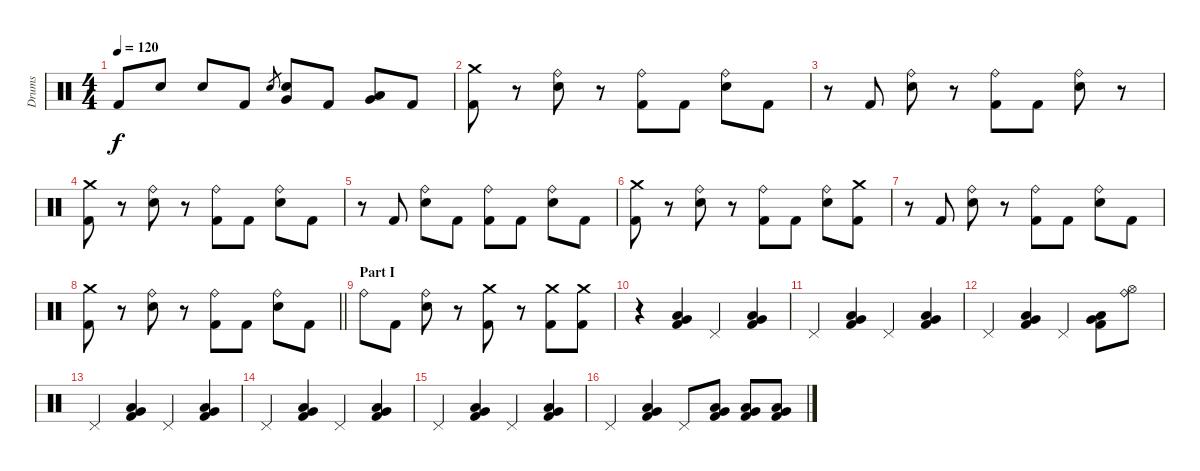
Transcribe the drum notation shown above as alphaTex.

\track ("Drums" "Drums") {instrument percussion}
\staff {score}
\articulation defaults
\ts (4 4)
\tempo 120
\clef neutral
\ks c "Kick (hit) 2".8{dy f} "Electric Snare (hit)".8 "Electric Snare (hit)".8 "Kick (hit) 2".8 "Electric Snare (hit)".8{gr}
("Electric Snare (hit)" "Very Low Tom (hit)").8 "Kick (hit) 2".8 ("Very Low Tom (hit)" "Low Floor Tom (hit)").8 "Kick (hit) 2".8 |
("Crash medium (hit)" "Kick (hit) 2").8 r.8 ("Ride (bell)" "Electric Snare (hit)").8 r.8 ("Ride (bell)" "Kick (hit) 2").8 "Kick (hit) 2".8 ("Ride (bell)" "Electric Snare (hit)").8 "Kick (hit) 2".8 |
r.8 "Kick (hit) 2".8 ("Ride (bell)" "Electric Snare (hit)").8 r.8 ("Ride (bell)" "Kick (hit) 2").8 "Kick (hit) 2".8 ("Ride (bell)" "Electric Snare (hit)").8 r.8 |
("Crash medium (hit)" "Kick (hit) 2").8 r.8 ("Ride (bell)" "Electric Snare (hit)").8 r.8 ("Ride (bell)" "Kick (hit) 2").8 "Kick (hit) 2".8 ("Ride (bell)" "Electric Snare (hit)").8 "Kick (hit) 2".8 |
r.8 "Kick (hit) 2".8 ("Ride (bell)" "Electric Snare (hit)").8 "Kick (hit) 2".8 ("Ride (bell)" "Kick (hit) 2").8 "Kick (hit) 2".8 ("Ride (bell)" "Electric Snare (hit)").8 "Kick (hit) 2".8 |
("Crash medium (hit)" "Kick (hit) 2").8 r.8 ("Ride (bell)" "Electric Snare (hit)").8 r.8 ("Ride (bell)" "Kick (hit) 2").8 "Kick (hit) 2".8 ("Ride (bell)" "Electric Snare (hit)").8 ("Crash medium (hit)" "Kick (hit) 2").8 |
r.8 "Kick (hit) 2".8 ("Ride (bell)" "Electric Snare (hit)").8 r.8 ("Ride (bell)" "Kick (hit) 2").8 "Kick (hit) 2".8 ("Ride (bell)" "Electric Snare (hit)").8 "Kick (hit) 2".8 |
\barLineRight lightlight
("Crash medium (hit)" "Kick (hit) 2").8 r.8 ("Ride (bell)" "Electric Snare (hit)").8 r.8 ("Ride (bell)" "Kick (hit) 2").8 "Kick (hit) 2".8 ("Ride (bell)" "Electric Snare (hit)").8 "Kick (hit) 2".8 |
\section ("" "Part I ")
"Ride (bell)".8 "Kick (hit) 2".8 ("Ride (bell)" "Electric Snare (hit)").8 r.8 ("Crash medium (hit)" "Kick (hit) 2").8 r.8 ("Crash medium (hit)" "Kick (hit) 2").8 ("Crash medium (hit)" "Kick (hit) 2").8 |
r.4 ("Low Floor Tom (hit)" "Very Low Tom (hit)" "Kick (hit) 2").4 "Pedal Hi-Hat (hit)".4 ("Low Floor Tom (hit)" "Very Low Tom (hit)" "Kick (hit) 2").4 |
"Pedal Hi-Hat (hit)".4 ("Low Floor Tom (hit)" "Very Low Tom (hit)" "Kick (hit) 2").4 "Pedal Hi-Hat (hit)".4 ("Low Floor Tom (hit)" "Very Low Tom (hit)" "Kick (hit) 2").4 |
"Pedal Hi-Hat (hit)".4 ("Low Floor Tom (hit)" "Very Low Tom (hit)" "Kick (hit) 2").4 "Pedal Hi-Hat (hit)".4 ("Low Floor Tom (hit)" "Very Low Tom (hit)" "Kick (hit) 2").8 ("Ride (bell)" "Hi-Hat (open)").8 |
"Pedal Hi-Hat (hit)".4 ("Low Floor Tom (hit)" "Very Low Tom (hit)" "Kick (hit) 2").4 "Pedal Hi-Hat (hit)".4 ("Low Floor Tom (hit)" "Very Low Tom (hit)" "Kick (hit) 2").4 |
"Pedal Hi-Hat (hit)".4 ("Low Floor Tom (hit)" "Very Low Tom (hit)" "Kick (hit) 2").4 "Pedal Hi-Hat (hit)".4 ("Low Floor Tom (hit)" "Very Low Tom (hit)" "Kick (hit) 2").4 |
"Pedal Hi-Hat (hit)".4 ("Low Floor Tom (hit)" "Very Low Tom (hit)" "Kick (hit) 2").4 "Pedal Hi-Hat (hit)".4 ("Low Floor Tom (hit)" "Very Low Tom (hit)" "Kick (hit) 2").4 |
"Pedal Hi-Hat (hit)".4 ("Low Floor Tom (hit)" "Very Low Tom (hit)" "Kick (hit) 2").4 "Pedal Hi-Hat (hit)".8 ("Low Floor Tom (hit)" "Very Low Tom (hit)" "Kick (hit) 2").8 ("Low Floor Tom (hit)" "Very Low Tom (hit)" "Kick (hit) 2").8 ("Low Floor Tom (hit)" "Very Low Tom (hit)" "Kick (hit) 2").8
